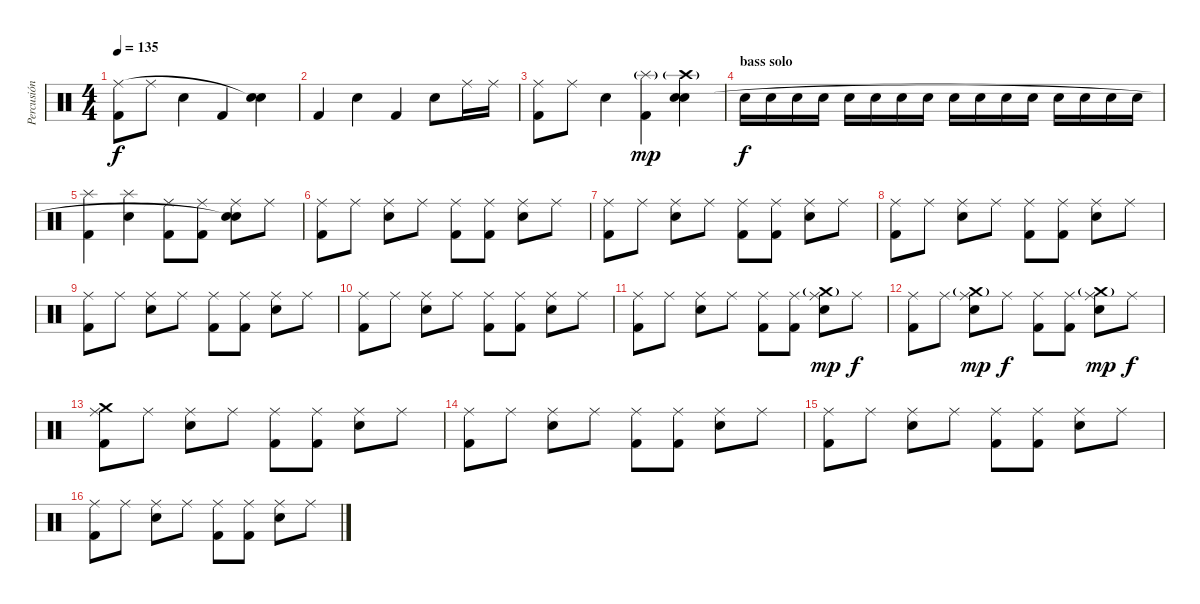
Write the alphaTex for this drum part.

\track ("Percusión" "Percusión") {instrument percussion}
\staff {score}
\articulation defaults
\ts (4 4)
\tempo 135
\clef neutral
\ks c
("Kick (hit) 2" "Ride (middle)").8{dy f} "Ride (middle)".8 "Snare (hit) 2".4 "Kick (hit) 2".4 ("Snare (hit) 2" "Snare (hit)"{t}).4 |
"Kick (hit) 2".4 "Snare (hit) 2".4 "Kick (hit) 2".4 "Snare (hit) 2".8 "Ride (middle)".16 "Ride (middle)".16 |
("Kick (hit) 2" "Ride (middle)").8 "Ride (middle)".8 "Snare (hit) 2".4 ("Kick (hit) 2" "Splash (hit)"{g}).4{dy mp} ("Snare (hit) 2" "Crash high (hit)"{g} "Snare (hit)").4 |
\section ("" "bass solo")
"Snare (hit) 2".16{dy f} "Snare (hit) 2".16 "Snare (hit) 2".16 "Snare (hit) 2".16 "Snare (hit) 2".16 "Snare (hit) 2".16 "Snare (hit) 2".16 "Snare (hit) 2".16 "Snare (hit) 2".16 "Snare (hit) 2".16 "Snare (hit) 2".16 "Snare (hit) 2".16 "Snare (hit) 2".16 "Snare (hit) 2".16 "Snare (hit) 2".16 "Snare (hit) 2".16 |
("Kick (hit) 2" "Splash (hit)").4 ("Snare (hit) 2" "Splash (hit)").4 ("Kick (hit) 2" "Ride (middle)").8 ("Kick (hit) 2" "Ride (middle)").8 ("Snare (hit) 2" "Ride (middle)" "Snare (hit)"{t}).8 "Ride (middle)".8 |
("Kick (hit) 2" "Ride (middle)").8 "Ride (middle)".8 ("Snare (hit) 2" "Ride (middle)").8 "Ride (middle)".8 ("Kick (hit) 2" "Ride (middle)").8 ("Kick (hit) 2" "Ride (middle)").8 ("Snare (hit) 2" "Ride (middle)").8 "Ride (middle)".8 |
("Kick (hit) 2" "Ride (middle)").8 "Ride (middle)".8 ("Snare (hit) 2" "Ride (middle)").8 "Ride (middle)".8 ("Kick (hit) 2" "Ride (middle)").8 ("Kick (hit) 2" "Ride (middle)").8 ("Snare (hit) 2" "Ride (middle)").8 "Ride (middle)".8 |
("Kick (hit) 2" "Ride (middle)").8 "Ride (middle)".8 ("Snare (hit) 2" "Ride (middle)").8 "Ride (middle)".8 ("Kick (hit) 2" "Ride (middle)").8 ("Kick (hit) 2" "Ride (middle)").8 ("Snare (hit) 2" "Ride (middle)").8 "Ride (middle)".8 |
("Kick (hit) 2" "Ride (middle)").8 "Ride (middle)".8 ("Snare (hit) 2" "Ride (middle)").8 "Ride (middle)".8 ("Kick (hit) 2" "Ride (middle)").8 ("Kick (hit) 2" "Ride (middle)").8 ("Snare (hit) 2" "Ride (middle)").8 "Ride (middle)".8 |
("Kick (hit) 2" "Ride (middle)").8 "Ride (middle)".8 ("Snare (hit) 2" "Ride (middle)").8 "Ride (middle)".8 ("Kick (hit) 2" "Ride (middle)").8 ("Kick (hit) 2" "Ride (middle)").8 ("Snare (hit) 2" "Ride (middle)").8 "Ride (middle)".8 |
("Kick (hit) 2" "Ride (middle)").8 "Ride (middle)".8 ("Snare (hit) 2" "Ride (middle)").8 "Ride (middle)".8 ("Kick (hit) 2" "Ride (middle)").8 ("Kick (hit) 2" "Ride (middle)").8 ("Snare (hit) 2" "Ride (middle)" "Crash medium (hit)"{g}).8{dy mp} "Ride (middle)".8{dy f} |
("Kick (hit) 2" "Ride (middle)").8 "Ride (middle)".8 ("Snare (hit) 2" "Ride (middle)" "Crash medium (hit)"{g}).8{dy mp} "Ride (middle)".8{dy f} ("Kick (hit) 2" "Ride (middle)").8 ("Kick (hit) 2" "Ride (middle)").8 ("Snare (hit) 2" "Ride (middle)" "Crash medium (hit)"{g}).8{dy mp} "Ride (middle)".8{dy f} |
("Kick (hit) 2" "Ride (middle)" "Crash medium (hit)").8 "Ride (middle)".8 ("Snare (hit) 2" "Ride (middle)").8 "Ride (middle)".8 ("Kick (hit) 2" "Ride (middle)").8 ("Kick (hit) 2" "Ride (middle)").8 ("Snare (hit) 2" "Ride (middle)").8 "Ride (middle)".8 |
("Kick (hit) 2" "Ride (middle)").8 "Ride (middle)".8 ("Snare (hit) 2" "Ride (middle)").8 "Ride (middle)".8 ("Kick (hit) 2" "Ride (middle)").8 ("Kick (hit) 2" "Ride (middle)").8 ("Snare (hit) 2" "Ride (middle)").8 "Ride (middle)".8 |
("Kick (hit) 2" "Ride (middle)").8 "Ride (middle)".8 ("Snare (hit) 2" "Ride (middle)").8 "Ride (middle)".8 ("Kick (hit) 2" "Ride (middle)").8 ("Kick (hit) 2" "Ride (middle)").8 ("Snare (hit) 2" "Ride (middle)").8 "Ride (middle)".8 |
("Kick (hit) 2" "Ride (middle)").8 "Ride (middle)".8 ("Snare (hit) 2" "Ride (middle)").8 "Ride (middle)".8 ("Kick (hit) 2" "Ride (middle)").8 ("Kick (hit) 2" "Ride (middle)").8 ("Snare (hit) 2" "Ride (middle)").8 "Ride (middle)".8
